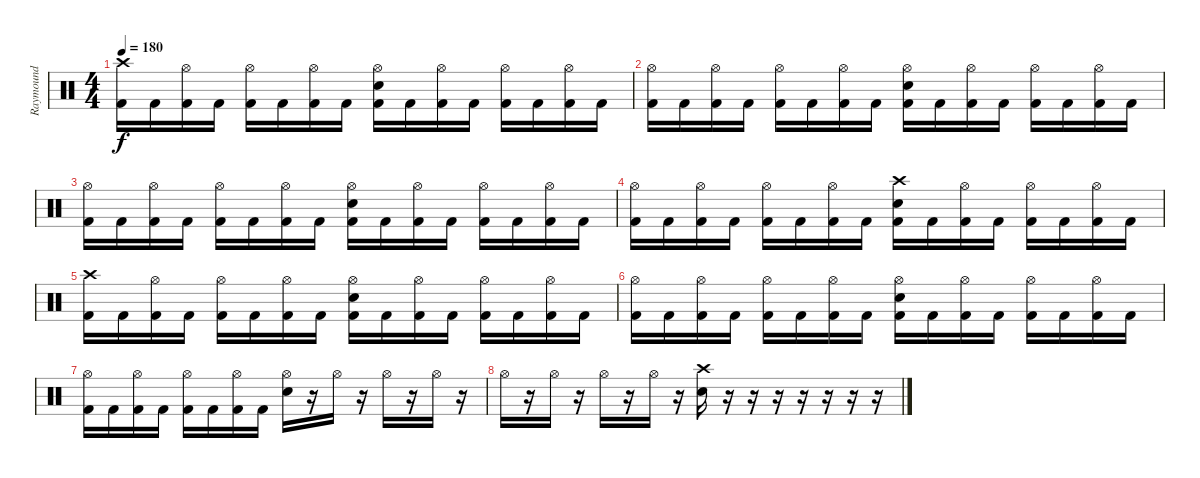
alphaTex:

\track ("Raymound " "Raymound ") {instrument percussion}
\staff {score}
\articulation defaults
\ts (4 4)
\tempo 180
\clef neutral
\ks c
("Crash high (hit)" "Kick (hit) 2").16{dy f} "Kick (hit) 2".16 ("Hi-Hat (open)" "Kick (hit) 2").16 "Kick (hit) 2".16 ("Hi-Hat (open)" "Kick (hit) 2").16 "Kick (hit) 2".16 ("Hi-Hat (open)" "Kick (hit) 2").16 "Kick (hit) 2".16 ("Hi-Hat (open)" "Electric Snare (hit)" "Kick (hit) 2").16 "Kick (hit) 2".16 ("Hi-Hat (open)" "Kick (hit) 2").16 "Kick (hit) 2".16 ("Hi-Hat (open)" "Kick (hit) 2").16 "Kick (hit) 2".16 ("Hi-Hat (open)" "Kick (hit) 2").16 "Kick (hit) 2".16 |
("Hi-Hat (open)" "Kick (hit) 2").16 "Kick (hit) 2".16 ("Hi-Hat (open)" "Kick (hit) 2").16 "Kick (hit) 2".16 ("Hi-Hat (open)" "Kick (hit) 2").16 "Kick (hit) 2".16 ("Hi-Hat (open)" "Kick (hit) 2").16 "Kick (hit) 2".16 ("Hi-Hat (open)" "Electric Snare (hit)" "Kick (hit) 2").16 "Kick (hit) 2".16 ("Hi-Hat (open)" "Kick (hit) 2").16 "Kick (hit) 2".16 ("Hi-Hat (open)" "Kick (hit) 2").16 "Kick (hit) 2".16 ("Hi-Hat (open)" "Kick (hit) 2").16 "Kick (hit) 2".16 |
("Hi-Hat (open)" "Kick (hit) 2").16 "Kick (hit) 2".16 ("Hi-Hat (open)" "Kick (hit) 2").16 "Kick (hit) 2".16 ("Hi-Hat (open)" "Kick (hit) 2").16 "Kick (hit) 2".16 ("Hi-Hat (open)" "Kick (hit) 2").16 "Kick (hit) 2".16 ("Hi-Hat (open)" "Electric Snare (hit)" "Kick (hit) 2").16 "Kick (hit) 2".16 ("Hi-Hat (open)" "Kick (hit) 2").16 "Kick (hit) 2".16 ("Hi-Hat (open)" "Kick (hit) 2").16 "Kick (hit) 2".16 ("Hi-Hat (open)" "Kick (hit) 2").16 "Kick (hit) 2".16 |
("Hi-Hat (open)" "Kick (hit) 2").16 "Kick (hit) 2".16 ("Hi-Hat (open)" "Kick (hit) 2").16 "Kick (hit) 2".16 ("Hi-Hat (open)" "Kick (hit) 2").16 "Kick (hit) 2".16 ("Hi-Hat (open)" "Kick (hit) 2").16 "Kick (hit) 2".16 ("Crash high (hit)" "Electric Snare (hit)" "Kick (hit) 2").16 "Kick (hit) 2".16 ("Hi-Hat (open)" "Kick (hit) 2").16 "Kick (hit) 2".16 ("Hi-Hat (open)" "Kick (hit) 2").16 "Kick (hit) 2".16 ("Hi-Hat (open)" "Kick (hit) 2").16 "Kick (hit) 2".16 |
("Crash high (hit)" "Kick (hit) 2").16 "Kick (hit) 2".16 ("Hi-Hat (open)" "Kick (hit) 2").16 "Kick (hit) 2".16 ("Hi-Hat (open)" "Kick (hit) 2").16 "Kick (hit) 2".16 ("Hi-Hat (open)" "Kick (hit) 2").16 "Kick (hit) 2".16 ("Hi-Hat (open)" "Electric Snare (hit)" "Kick (hit) 2").16 "Kick (hit) 2".16 ("Hi-Hat (open)" "Kick (hit) 2").16 "Kick (hit) 2".16 ("Hi-Hat (open)" "Kick (hit) 2").16 "Kick (hit) 2".16 ("Hi-Hat (open)" "Kick (hit) 2").16 "Kick (hit) 2".16 |
("Hi-Hat (open)" "Kick (hit) 2").16 "Kick (hit) 2".16 ("Hi-Hat (open)" "Kick (hit) 2").16 "Kick (hit) 2".16 ("Hi-Hat (open)" "Kick (hit) 2").16 "Kick (hit) 2".16 ("Hi-Hat (open)" "Kick (hit) 2").16 "Kick (hit) 2".16 ("Hi-Hat (open)" "Electric Snare (hit)" "Kick (hit) 2").16 "Kick (hit) 2".16 ("Hi-Hat (open)" "Kick (hit) 2").16 "Kick (hit) 2".16 ("Hi-Hat (open)" "Kick (hit) 2").16 "Kick (hit) 2".16 ("Hi-Hat (open)" "Kick (hit) 2").16 "Kick (hit) 2".16 |
("Hi-Hat (open)" "Kick (hit) 2").16 "Kick (hit) 2".16 ("Hi-Hat (open)" "Kick (hit) 2").16 "Kick (hit) 2".16 ("Hi-Hat (open)" "Kick (hit) 2").16 "Kick (hit) 2".16 ("Hi-Hat (open)" "Kick (hit) 2").16 "Kick (hit) 2".16 ("Hi-Hat (open)" "Electric Snare (hit)").16 r.16 "Hi-Hat (open)".16 r.16 "Hi-Hat (open)".16 r.16 "Hi-Hat (open)".16 r.16 |
"Hi-Hat (open)".16 r.16 "Hi-Hat (open)".16 r.16 "Hi-Hat (open)".16 r.16 "Hi-Hat (open)".16 r.16 ("Crash high (hit)" "Electric Snare (hit)").16 r.16 r.16 r.16 r.16 r.16 r.16 r.16
